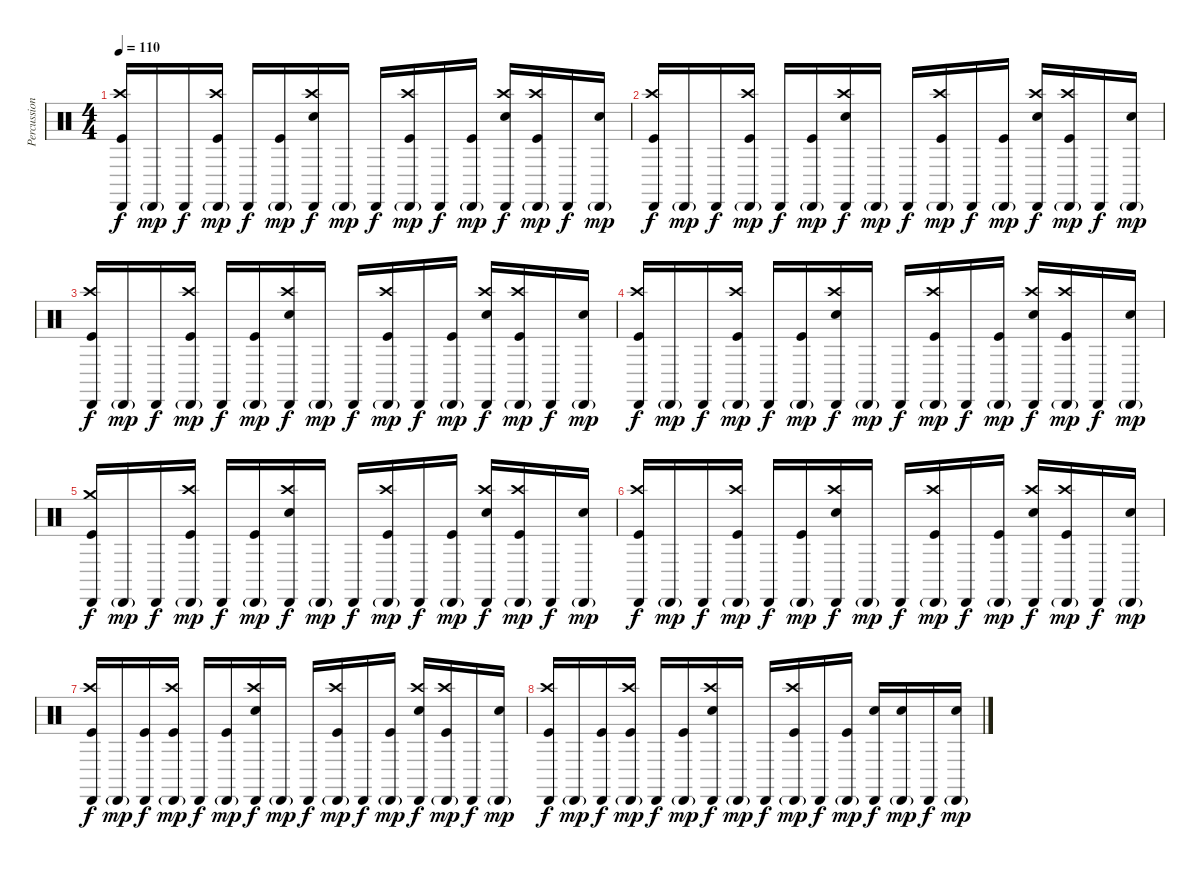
\track ("Percussion" "Percussion") {instrument percussion}
\staff {score}
\articulation defaults
\ts (4 4)
\tempo 110
\clef neutral
\ks c
("Cabasa (hit)" "Crash high (hit)" "Kick (hit)").16{dy f} "Cabasa (hit)"{g}.16{dy mp} "Cabasa (hit)".16{dy f} ("Cabasa (hit)"{g} "Crash high (hit)" "Kick (hit)").16{dy mp} "Cabasa (hit)".16{dy f} ("Cabasa (hit)"{g} "Kick (hit)").16{dy mp} ("Cabasa (hit)" "Crash high (hit)" "Snare (hit) 2").16{dy f} "Cabasa (hit)"{g}.16{dy mp} "Cabasa (hit)".16{dy f} ("Cabasa (hit)"{g} "Crash high (hit)" "Kick (hit)").16{dy mp} "Cabasa (hit)".16{dy f} ("Cabasa (hit)"{g} "Kick (hit)").16{dy mp} ("Cabasa (hit)" "Crash high (hit)" "Snare (hit) 2").16{dy f} ("Cabasa (hit)"{g} "Crash high (hit)" "Kick (hit)").16{dy mp} "Cabasa (hit)".16{dy f} ("Cabasa (hit)"{g} "Snare (hit) 2").16{dy mp} |
("Cabasa (hit)" "Crash high (hit)" "Kick (hit)").16{dy f} "Cabasa (hit)"{g}.16{dy mp} "Cabasa (hit)".16{dy f} ("Cabasa (hit)"{g} "Crash high (hit)" "Kick (hit)").16{dy mp} "Cabasa (hit)".16{dy f} ("Cabasa (hit)"{g} "Kick (hit)").16{dy mp} ("Cabasa (hit)" "Crash high (hit)" "Snare (hit) 2").16{dy f} "Cabasa (hit)"{g}.16{dy mp} "Cabasa (hit)".16{dy f} ("Cabasa (hit)"{g} "Crash high (hit)" "Kick (hit)").16{dy mp} "Cabasa (hit)".16{dy f} ("Cabasa (hit)"{g} "Kick (hit)").16{dy mp} ("Cabasa (hit)" "Crash high (hit)" "Snare (hit) 2").16{dy f} ("Cabasa (hit)"{g} "Crash high (hit)" "Kick (hit)").16{dy mp} "Cabasa (hit)".16{dy f} ("Cabasa (hit)"{g} "Snare (hit) 2").16{dy mp} |
("Cabasa (hit)" "Crash high (hit)" "Kick (hit)").16{dy f} "Cabasa (hit)"{g}.16{dy mp} "Cabasa (hit)".16{dy f} ("Cabasa (hit)"{g} "Crash high (hit)" "Kick (hit)").16{dy mp} "Cabasa (hit)".16{dy f} ("Cabasa (hit)"{g} "Kick (hit)").16{dy mp} ("Cabasa (hit)" "Crash high (hit)" "Snare (hit) 2").16{dy f} "Cabasa (hit)"{g}.16{dy mp} "Cabasa (hit)".16{dy f} ("Cabasa (hit)"{g} "Crash high (hit)" "Kick (hit)").16{dy mp} "Cabasa (hit)".16{dy f} ("Cabasa (hit)"{g} "Kick (hit)").16{dy mp} ("Cabasa (hit)" "Crash high (hit)" "Snare (hit) 2").16{dy f} ("Cabasa (hit)"{g} "Crash high (hit)" "Kick (hit)").16{dy mp} "Cabasa (hit)".16{dy f} ("Cabasa (hit)"{g} "Snare (hit) 2").16{dy mp} |
("Cabasa (hit)" "Crash high (hit)" "Kick (hit)").16{dy f} "Cabasa (hit)"{g}.16{dy mp} "Cabasa (hit)".16{dy f} ("Cabasa (hit)"{g} "Crash high (hit)" "Kick (hit)").16{dy mp} "Cabasa (hit)".16{dy f} ("Cabasa (hit)"{g} "Kick (hit)").16{dy mp} ("Cabasa (hit)" "Crash high (hit)" "Snare (hit) 2").16{dy f} "Cabasa (hit)"{g}.16{dy mp} "Cabasa (hit)".16{dy f} ("Cabasa (hit)"{g} "Crash high (hit)" "Kick (hit)").16{dy mp} "Cabasa (hit)".16{dy f} ("Cabasa (hit)"{g} "Kick (hit)").16{dy mp} ("Cabasa (hit)" "Crash high (hit)" "Snare (hit) 2").16{dy f} ("Cabasa (hit)"{g} "Crash high (hit)" "Kick (hit)").16{dy mp} "Cabasa (hit)".16{dy f} ("Cabasa (hit)"{g} "Snare (hit) 2").16{dy mp} |
("Cabasa (hit)" "Crash medium (hit)" "Kick (hit)").16{dy f} "Cabasa (hit)"{g}.16{dy mp} "Cabasa (hit)".16{dy f} ("Cabasa (hit)"{g} "Crash high (hit)" "Kick (hit)").16{dy mp} "Cabasa (hit)".16{dy f} ("Cabasa (hit)"{g} "Kick (hit)").16{dy mp} ("Cabasa (hit)" "Crash high (hit)" "Snare (hit) 2").16{dy f} "Cabasa (hit)"{g}.16{dy mp} "Cabasa (hit)".16{dy f} ("Cabasa (hit)"{g} "Crash high (hit)" "Kick (hit)").16{dy mp} "Cabasa (hit)".16{dy f} ("Cabasa (hit)"{g} "Kick (hit)").16{dy mp} ("Cabasa (hit)" "Crash high (hit)" "Snare (hit) 2").16{dy f} ("Cabasa (hit)"{g} "Crash high (hit)" "Kick (hit)").16{dy mp} "Cabasa (hit)".16{dy f} ("Cabasa (hit)"{g} "Snare (hit) 2").16{dy mp} |
("Cabasa (hit)" "Crash high (hit)" "Kick (hit)").16{dy f} "Cabasa (hit)"{g}.16{dy mp} "Cabasa (hit)".16{dy f} ("Cabasa (hit)"{g} "Crash high (hit)" "Kick (hit)").16{dy mp} "Cabasa (hit)".16{dy f} ("Cabasa (hit)"{g} "Kick (hit)").16{dy mp} ("Cabasa (hit)" "Crash high (hit)" "Snare (hit) 2").16{dy f} "Cabasa (hit)"{g}.16{dy mp} "Cabasa (hit)".16{dy f} ("Cabasa (hit)"{g} "Crash high (hit)" "Kick (hit)").16{dy mp} "Cabasa (hit)".16{dy f} ("Cabasa (hit)"{g} "Kick (hit)").16{dy mp} ("Cabasa (hit)" "Crash high (hit)" "Snare (hit) 2").16{dy f} ("Cabasa (hit)"{g} "Crash high (hit)" "Kick (hit)").16{dy mp} "Cabasa (hit)".16{dy f} ("Cabasa (hit)"{g} "Snare (hit) 2").16{dy mp} |
("Cabasa (hit)" "Crash high (hit)" "Kick (hit)").16{dy f} "Cabasa (hit)"{g}.16{dy mp} ("Cabasa (hit)" "Kick (hit)").16{dy f} ("Cabasa (hit)"{g} "Crash high (hit)" "Kick (hit)").16{dy mp} "Cabasa (hit)".16{dy f} ("Cabasa (hit)"{g} "Kick (hit)").16{dy mp} ("Cabasa (hit)" "Crash high (hit)" "Snare (hit) 2").16{dy f} "Cabasa (hit)"{g}.16{dy mp} "Cabasa (hit)".16{dy f} ("Cabasa (hit)"{g} "Crash high (hit)" "Kick (hit)").16{dy mp} "Cabasa (hit)".16{dy f} ("Cabasa (hit)"{g} "Kick (hit)").16{dy mp} ("Cabasa (hit)" "Crash high (hit)" "Snare (hit) 2").16{dy f} ("Cabasa (hit)"{g} "Crash high (hit)" "Kick (hit)").16{dy mp} "Cabasa (hit)".16{dy f} ("Cabasa (hit)"{g} "Snare (hit) 2").16{dy mp} |
("Cabasa (hit)" "Crash high (hit)" "Kick (hit)").16{dy f} "Cabasa (hit)"{g}.16{dy mp} ("Cabasa (hit)" "Kick (hit)").16{dy f} ("Cabasa (hit)"{g} "Crash high (hit)" "Kick (hit)").16{dy mp} "Cabasa (hit)".16{dy f} ("Cabasa (hit)"{g} "Kick (hit)").16{dy mp} ("Cabasa (hit)" "Crash high (hit)" "Snare (hit) 2").16{dy f} "Cabasa (hit)"{g}.16{dy mp} "Cabasa (hit)".16{dy f} ("Cabasa (hit)"{g} "Crash high (hit)" "Kick (hit)").16{dy mp} "Cabasa (hit)".16{dy f} ("Cabasa (hit)"{g} "Kick (hit)").16{dy mp} ("Cabasa (hit)" "Snare (hit) 2").16{dy f} ("Cabasa (hit)"{g} "Snare (hit) 2").16{dy mp} "Cabasa (hit)".16{dy f} ("Cabasa (hit)"{g} "Snare (hit) 2").16{dy mp}
